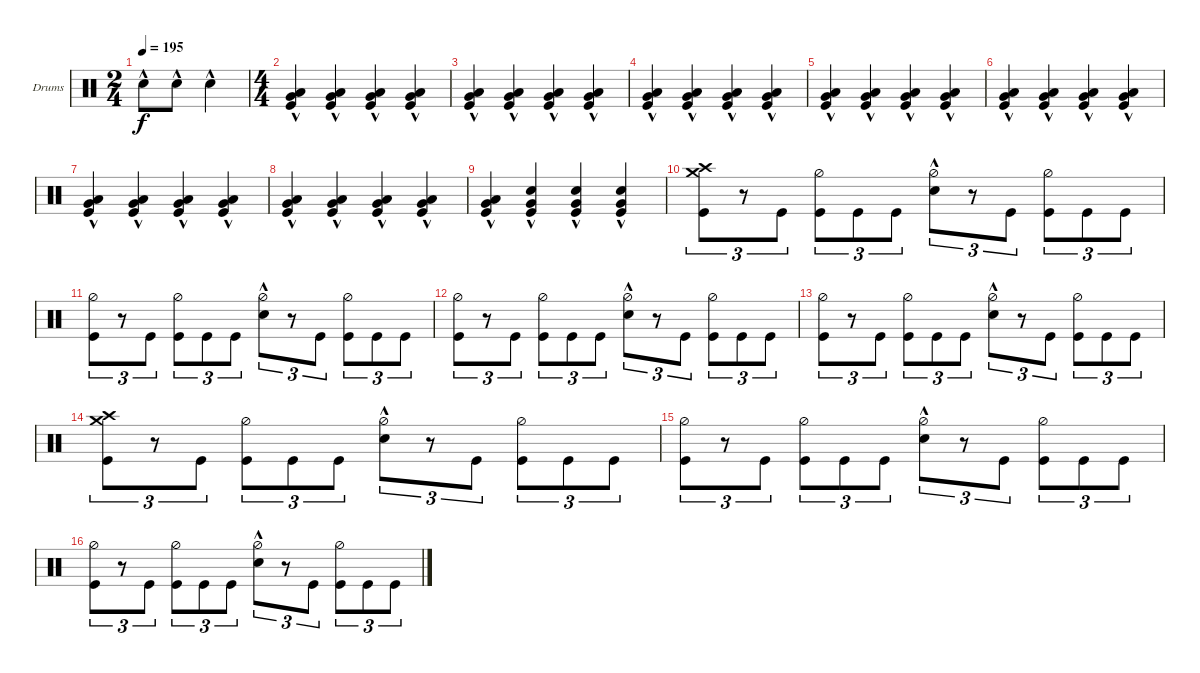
\defaultSystemsLayout 4
\bracketExtendMode groupsimilarinstruments
\firstSystemTrackNameOrientation horizontal
\otherSystemsTrackNameOrientation horizontal
\track ("Drumkit" "Drums") {instrument percussion}
\staff {score}
\articulation defaults
\ts (2 4)
\tempo 195
\clef neutral
\ks c "Snare (hit) 2"{hac}.8{dy f} "Snare (hit) 2"{hac}.8 "Snare (hit) 2"{hac}.4
|
\ts (4 4)
("Low Tom (hit)"{hac} "Very Low Tom (hit)"{hac} "Kick (hit)").4 ("Low Tom (hit)"{hac} "Very Low Tom (hit)"{hac} "Kick (hit)").4 ("Low Tom (hit)"{hac} "Very Low Tom (hit)"{hac} "Kick (hit)").4 ("Low Tom (hit)"{hac} "Very Low Tom (hit)"{hac} "Kick (hit)").4 |
("Low Tom (hit)"{hac} "Very Low Tom (hit)"{hac} "Kick (hit)").4 ("Low Tom (hit)"{hac} "Very Low Tom (hit)"{hac} "Kick (hit)").4 ("Low Tom (hit)"{hac} "Very Low Tom (hit)"{hac} "Kick (hit)").4 ("Low Tom (hit)"{hac} "Very Low Tom (hit)"{hac} "Kick (hit)").4 |
("Low Tom (hit)"{hac} "Very Low Tom (hit)"{hac} "Kick (hit)").4 ("Low Tom (hit)"{hac} "Very Low Tom (hit)"{hac} "Kick (hit)").4 ("Low Tom (hit)"{hac} "Very Low Tom (hit)"{hac} "Kick (hit)").4 ("Low Tom (hit)"{hac} "Very Low Tom (hit)"{hac} "Kick (hit)").4 |
("Low Tom (hit)"{hac} "Very Low Tom (hit)"{hac} "Kick (hit)").4 ("Low Tom (hit)"{hac} "Very Low Tom (hit)"{hac} "Kick (hit)").4 ("Low Tom (hit)"{hac} "Very Low Tom (hit)"{hac} "Kick (hit)").4 ("Low Tom (hit)"{hac} "Very Low Tom (hit)"{hac} "Kick (hit)").4 |
("Low Tom (hit)"{hac} "Very Low Tom (hit)"{hac} "Kick (hit)").4 ("Low Tom (hit)"{hac} "Very Low Tom (hit)"{hac} "Kick (hit)").4 ("Low Tom (hit)"{hac} "Very Low Tom (hit)"{hac} "Kick (hit)").4 ("Low Tom (hit)"{hac} "Very Low Tom (hit)"{hac} "Kick (hit)").4 |
("Low Tom (hit)"{hac} "Very Low Tom (hit)"{hac} "Kick (hit)").4 ("Low Tom (hit)"{hac} "Very Low Tom (hit)"{hac} "Kick (hit)").4 ("Low Tom (hit)"{hac} "Very Low Tom (hit)"{hac} "Kick (hit)").4 ("Low Tom (hit)"{hac} "Very Low Tom (hit)"{hac} "Kick (hit)").4 |
("Low Tom (hit)"{hac} "Very Low Tom (hit)"{hac} "Kick (hit)").4 ("Low Tom (hit)"{hac} "Very Low Tom (hit)"{hac} "Kick (hit)").4 ("Low Tom (hit)"{hac} "Very Low Tom (hit)"{hac} "Kick (hit)").4 ("Low Tom (hit)"{hac} "Very Low Tom (hit)"{hac} "Kick (hit)").4 |
("Low Tom (hit)"{hac} "Very Low Tom (hit)"{hac} "Kick (hit)").4 ("Very Low Tom (hit)"{hac} "Kick (hit)" "Snare (hit) 2"{hac}).4 ("Very Low Tom (hit)"{hac} "Kick (hit)" "Snare (hit) 2"{hac}).4 ("Very Low Tom (hit)"{hac} "Kick (hit)" "Snare (hit) 2"{hac}).4 |
("Kick (hit)" "Crash medium (hit)" "Crash high (hit)").8{tu (3 2)} r.8{tu (3 2)} "Kick (hit)".8{tu (3 2)} ("Kick (hit)" "Hi-Hat (half)").8{tu (3 2)} "Kick (hit)".8{tu (3 2)} "Kick (hit)".8{tu (3 2)} ("Hi-Hat (half)" "Snare (hit) 2"{hac}).8{tu (3 2)} r.8{tu (3 2)} "Kick (hit)".8{tu (3 2)} ("Kick (hit)" "Hi-Hat (half)").8{tu (3 2)} "Kick (hit)".8{tu (3 2)} "Kick (hit)".8{tu (3 2)} |
("Kick (hit)" "Hi-Hat (half)").8{tu (3 2)} r.8{tu (3 2)} "Kick (hit)".8{tu (3 2)} ("Kick (hit)" "Hi-Hat (half)").8{tu (3 2)} "Kick (hit)".8{tu (3 2)} "Kick (hit)".8{tu (3 2)} ("Hi-Hat (half)" "Snare (hit) 2"{hac}).8{tu (3 2)} r.8{tu (3 2)} "Kick (hit)".8{tu (3 2)} ("Kick (hit)" "Hi-Hat (half)").8{tu (3 2)} "Kick (hit)".8{tu (3 2)} "Kick (hit)".8{tu (3 2)} |
("Kick (hit)" "Hi-Hat (half)").8{tu (3 2)} r.8{tu (3 2)} "Kick (hit)".8{tu (3 2)} ("Kick (hit)" "Hi-Hat (half)").8{tu (3 2)} "Kick (hit)".8{tu (3 2)} "Kick (hit)".8{tu (3 2)} ("Hi-Hat (half)" "Snare (hit) 2"{hac}).8{tu (3 2)} r.8{tu (3 2)} "Kick (hit)".8{tu (3 2)} ("Kick (hit)" "Hi-Hat (half)").8{tu (3 2)} "Kick (hit)".8{tu (3 2)} "Kick (hit)".8{tu (3 2)} |
("Kick (hit)" "Hi-Hat (half)").8{tu (3 2)} r.8{tu (3 2)} "Kick (hit)".8{tu (3 2)} ("Kick (hit)" "Hi-Hat (half)").8{tu (3 2)} "Kick (hit)".8{tu (3 2)} "Kick (hit)".8{tu (3 2)} ("Hi-Hat (half)" "Snare (hit) 2"{hac}).8{tu (3 2)} r.8{tu (3 2)} "Kick (hit)".8{tu (3 2)} ("Kick (hit)" "Hi-Hat (half)").8{tu (3 2)} "Kick (hit)".8{tu (3 2)} "Kick (hit)".8{tu (3 2)} |
("Kick (hit)" "Crash medium (hit)" "Crash high (hit)").8{tu (3 2)} r.8{tu (3 2)} "Kick (hit)".8{tu (3 2)} ("Kick (hit)" "Hi-Hat (half)").8{tu (3 2)} "Kick (hit)".8{tu (3 2)} "Kick (hit)".8{tu (3 2)} ("Hi-Hat (half)" "Snare (hit) 2"{hac}).8{tu (3 2)} r.8{tu (3 2)} "Kick (hit)".8{tu (3 2)} ("Kick (hit)" "Hi-Hat (half)").8{tu (3 2)} "Kick (hit)".8{tu (3 2)} "Kick (hit)".8{tu (3 2)} |
("Kick (hit)" "Hi-Hat (half)").8{tu (3 2)} r.8{tu (3 2)} "Kick (hit)".8{tu (3 2)} ("Kick (hit)" "Hi-Hat (half)").8{tu (3 2)} "Kick (hit)".8{tu (3 2)} "Kick (hit)".8{tu (3 2)} ("Hi-Hat (half)" "Snare (hit) 2"{hac}).8{tu (3 2)} r.8{tu (3 2)} "Kick (hit)".8{tu (3 2)} ("Kick (hit)" "Hi-Hat (half)").8{tu (3 2)} "Kick (hit)".8{tu (3 2)} "Kick (hit)".8{tu (3 2)} |
("Kick (hit)" "Hi-Hat (half)").8{tu (3 2)} r.8{tu (3 2)} "Kick (hit)".8{tu (3 2)} ("Kick (hit)" "Hi-Hat (half)").8{tu (3 2)} "Kick (hit)".8{tu (3 2)} "Kick (hit)".8{tu (3 2)} ("Hi-Hat (half)" "Snare (hit) 2"{hac}).8{tu (3 2)} r.8{tu (3 2)} "Kick (hit)".8{tu (3 2)} ("Kick (hit)" "Hi-Hat (half)").8{tu (3 2)} "Kick (hit)".8{tu (3 2)} "Kick (hit)".8{tu (3 2)}
